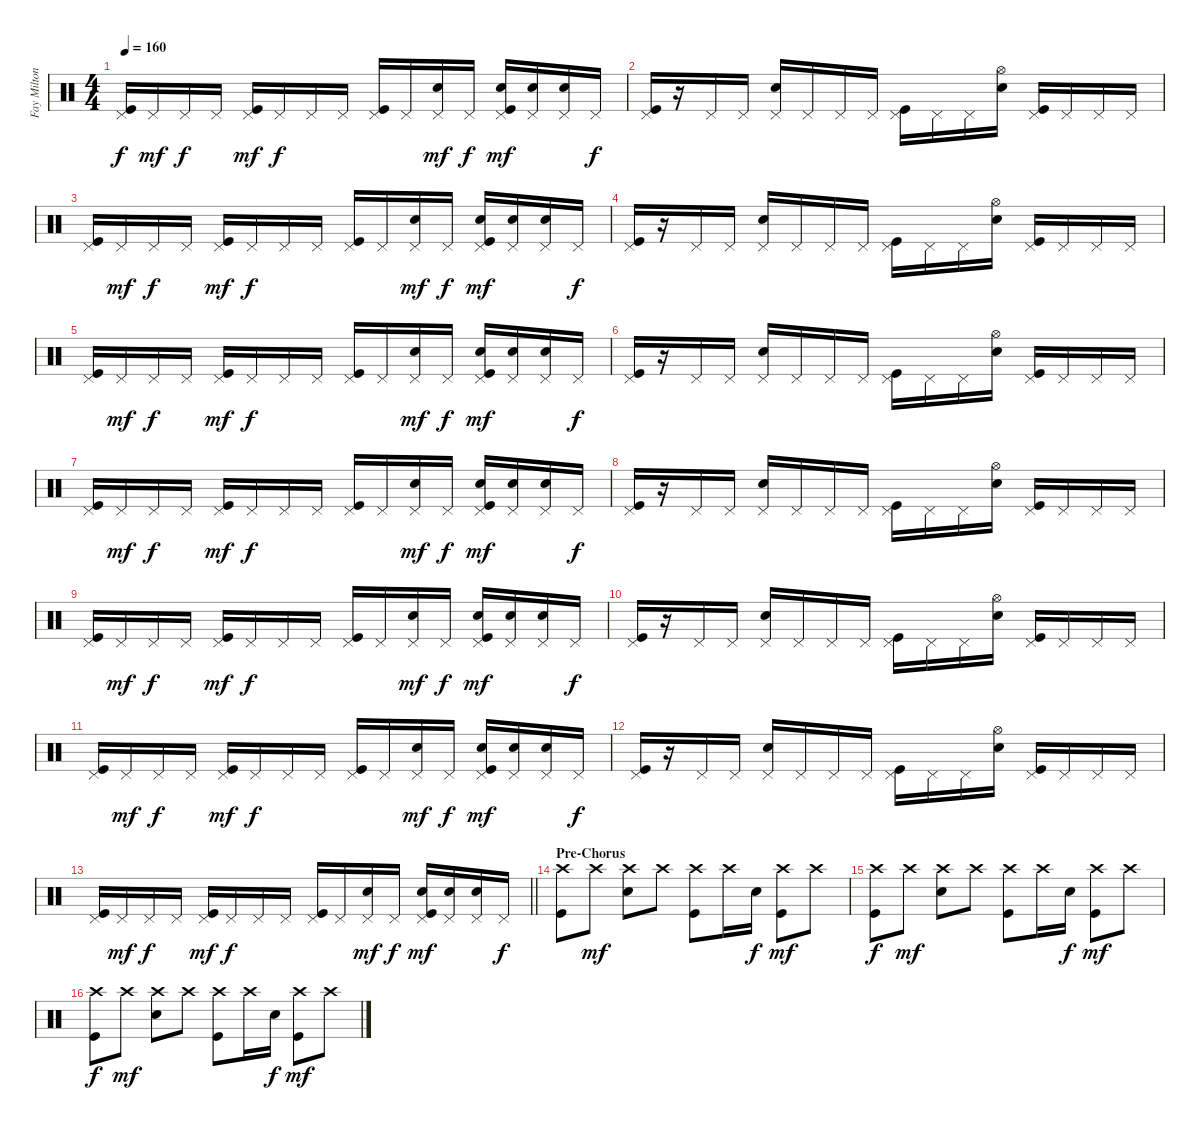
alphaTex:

\track ("Fay Milton - Drums" "Fay Milton") {instrument percussion}
\staff {score}
\articulation defaults
\ts (4 4)
\tempo 160
\clef neutral
\ks c
("Pedal Hi-Hat (hit)" "Kick (hit)").16{dy f} "Pedal Hi-Hat (hit)".16{dy mf} "Pedal Hi-Hat (hit)".16{dy f} "Pedal Hi-Hat (hit)".16 ("Pedal Hi-Hat (hit)" "Kick (hit)").16{dy mf} "Pedal Hi-Hat (hit)".16{dy f} "Pedal Hi-Hat (hit)".16 "Pedal Hi-Hat (hit)".16 ("Pedal Hi-Hat (hit)" "Kick (hit)").16 "Pedal Hi-Hat (hit)".16 ("Pedal Hi-Hat (hit)" "Snare (hit) 2").16{dy mf} "Pedal Hi-Hat (hit)".16{dy f} ("Pedal Hi-Hat (hit)" "Snare (hit) 2" "Kick (hit)").16{dy mf} ("Pedal Hi-Hat (hit)" "Snare (hit) 2").16 ("Pedal Hi-Hat (hit)" "Snare (hit) 2").16 "Pedal Hi-Hat (hit)".16{dy f} |
("Pedal Hi-Hat (hit)" "Kick (hit)").16 r.16 "Pedal Hi-Hat (hit)".16 "Pedal Hi-Hat (hit)".16 ("Pedal Hi-Hat (hit)" "Snare (hit) 2").16 "Pedal Hi-Hat (hit)".16 "Pedal Hi-Hat (hit)".16 "Pedal Hi-Hat (hit)".16 ("Pedal Hi-Hat (hit)" "Kick (hit)").16 "Pedal Hi-Hat (hit)".16 "Pedal Hi-Hat (hit)".16 ("Hi-Hat (open)" "Snare (hit) 2").16 ("Pedal Hi-Hat (hit)" "Kick (hit)").16 "Pedal Hi-Hat (hit)".16 "Pedal Hi-Hat (hit)".16 "Pedal Hi-Hat (hit)".16 |
("Pedal Hi-Hat (hit)" "Kick (hit)").16 "Pedal Hi-Hat (hit)".16{dy mf} "Pedal Hi-Hat (hit)".16{dy f} "Pedal Hi-Hat (hit)".16 ("Pedal Hi-Hat (hit)" "Kick (hit)").16{dy mf} "Pedal Hi-Hat (hit)".16{dy f} "Pedal Hi-Hat (hit)".16 "Pedal Hi-Hat (hit)".16 ("Pedal Hi-Hat (hit)" "Kick (hit)").16 "Pedal Hi-Hat (hit)".16 ("Pedal Hi-Hat (hit)" "Snare (hit) 2").16{dy mf} "Pedal Hi-Hat (hit)".16{dy f} ("Pedal Hi-Hat (hit)" "Snare (hit) 2" "Kick (hit)").16{dy mf} ("Pedal Hi-Hat (hit)" "Snare (hit) 2").16 ("Pedal Hi-Hat (hit)" "Snare (hit) 2").16 "Pedal Hi-Hat (hit)".16{dy f} |
("Pedal Hi-Hat (hit)" "Kick (hit)").16 r.16 "Pedal Hi-Hat (hit)".16 "Pedal Hi-Hat (hit)".16 ("Pedal Hi-Hat (hit)" "Snare (hit) 2").16 "Pedal Hi-Hat (hit)".16 "Pedal Hi-Hat (hit)".16 "Pedal Hi-Hat (hit)".16 ("Pedal Hi-Hat (hit)" "Kick (hit)").16 "Pedal Hi-Hat (hit)".16 "Pedal Hi-Hat (hit)".16 ("Hi-Hat (open)" "Snare (hit) 2").16 ("Pedal Hi-Hat (hit)" "Kick (hit)").16 "Pedal Hi-Hat (hit)".16 "Pedal Hi-Hat (hit)".16 "Pedal Hi-Hat (hit)".16 |
("Pedal Hi-Hat (hit)" "Kick (hit)").16 "Pedal Hi-Hat (hit)".16{dy mf} "Pedal Hi-Hat (hit)".16{dy f} "Pedal Hi-Hat (hit)".16 ("Pedal Hi-Hat (hit)" "Kick (hit)").16{dy mf} "Pedal Hi-Hat (hit)".16{dy f} "Pedal Hi-Hat (hit)".16 "Pedal Hi-Hat (hit)".16 ("Pedal Hi-Hat (hit)" "Kick (hit)").16 "Pedal Hi-Hat (hit)".16 ("Pedal Hi-Hat (hit)" "Snare (hit) 2").16{dy mf} "Pedal Hi-Hat (hit)".16{dy f} ("Pedal Hi-Hat (hit)" "Snare (hit) 2" "Kick (hit)").16{dy mf} ("Pedal Hi-Hat (hit)" "Snare (hit) 2").16 ("Pedal Hi-Hat (hit)" "Snare (hit) 2").16 "Pedal Hi-Hat (hit)".16{dy f} |
("Pedal Hi-Hat (hit)" "Kick (hit)").16 r.16 "Pedal Hi-Hat (hit)".16 "Pedal Hi-Hat (hit)".16 ("Pedal Hi-Hat (hit)" "Snare (hit) 2").16 "Pedal Hi-Hat (hit)".16 "Pedal Hi-Hat (hit)".16 "Pedal Hi-Hat (hit)".16 ("Pedal Hi-Hat (hit)" "Kick (hit)").16 "Pedal Hi-Hat (hit)".16 "Pedal Hi-Hat (hit)".16 ("Hi-Hat (open)" "Snare (hit) 2").16 ("Pedal Hi-Hat (hit)" "Kick (hit)").16 "Pedal Hi-Hat (hit)".16 "Pedal Hi-Hat (hit)".16 "Pedal Hi-Hat (hit)".16 |
("Pedal Hi-Hat (hit)" "Kick (hit)").16 "Pedal Hi-Hat (hit)".16{dy mf} "Pedal Hi-Hat (hit)".16{dy f} "Pedal Hi-Hat (hit)".16 ("Pedal Hi-Hat (hit)" "Kick (hit)").16{dy mf} "Pedal Hi-Hat (hit)".16{dy f} "Pedal Hi-Hat (hit)".16 "Pedal Hi-Hat (hit)".16 ("Pedal Hi-Hat (hit)" "Kick (hit)").16 "Pedal Hi-Hat (hit)".16 ("Pedal Hi-Hat (hit)" "Snare (hit) 2").16{dy mf} "Pedal Hi-Hat (hit)".16{dy f} ("Pedal Hi-Hat (hit)" "Snare (hit) 2" "Kick (hit)").16{dy mf} ("Pedal Hi-Hat (hit)" "Snare (hit) 2").16 ("Pedal Hi-Hat (hit)" "Snare (hit) 2").16 "Pedal Hi-Hat (hit)".16{dy f} |
("Pedal Hi-Hat (hit)" "Kick (hit)").16 r.16 "Pedal Hi-Hat (hit)".16 "Pedal Hi-Hat (hit)".16 ("Pedal Hi-Hat (hit)" "Snare (hit) 2").16 "Pedal Hi-Hat (hit)".16 "Pedal Hi-Hat (hit)".16 "Pedal Hi-Hat (hit)".16 ("Pedal Hi-Hat (hit)" "Kick (hit)").16 "Pedal Hi-Hat (hit)".16 "Pedal Hi-Hat (hit)".16 ("Hi-Hat (open)" "Snare (hit) 2").16 ("Pedal Hi-Hat (hit)" "Kick (hit)").16 "Pedal Hi-Hat (hit)".16 "Pedal Hi-Hat (hit)".16 "Pedal Hi-Hat (hit)".16 |
("Pedal Hi-Hat (hit)" "Kick (hit)").16 "Pedal Hi-Hat (hit)".16{dy mf} "Pedal Hi-Hat (hit)".16{dy f} "Pedal Hi-Hat (hit)".16 ("Pedal Hi-Hat (hit)" "Kick (hit)").16{dy mf} "Pedal Hi-Hat (hit)".16{dy f} "Pedal Hi-Hat (hit)".16 "Pedal Hi-Hat (hit)".16 ("Pedal Hi-Hat (hit)" "Kick (hit)").16 "Pedal Hi-Hat (hit)".16 ("Pedal Hi-Hat (hit)" "Snare (hit) 2").16{dy mf} "Pedal Hi-Hat (hit)".16{dy f} ("Pedal Hi-Hat (hit)" "Snare (hit) 2" "Kick (hit)").16{dy mf} ("Pedal Hi-Hat (hit)" "Snare (hit) 2").16 ("Pedal Hi-Hat (hit)" "Snare (hit) 2").16 "Pedal Hi-Hat (hit)".16{dy f} |
("Pedal Hi-Hat (hit)" "Kick (hit)").16 r.16 "Pedal Hi-Hat (hit)".16 "Pedal Hi-Hat (hit)".16 ("Pedal Hi-Hat (hit)" "Snare (hit) 2").16 "Pedal Hi-Hat (hit)".16 "Pedal Hi-Hat (hit)".16 "Pedal Hi-Hat (hit)".16 ("Pedal Hi-Hat (hit)" "Kick (hit)").16 "Pedal Hi-Hat (hit)".16 "Pedal Hi-Hat (hit)".16 ("Hi-Hat (open)" "Snare (hit) 2").16 ("Pedal Hi-Hat (hit)" "Kick (hit)").16 "Pedal Hi-Hat (hit)".16 "Pedal Hi-Hat (hit)".16 "Pedal Hi-Hat (hit)".16 |
("Pedal Hi-Hat (hit)" "Kick (hit)").16 "Pedal Hi-Hat (hit)".16{dy mf} "Pedal Hi-Hat (hit)".16{dy f} "Pedal Hi-Hat (hit)".16 ("Pedal Hi-Hat (hit)" "Kick (hit)").16{dy mf} "Pedal Hi-Hat (hit)".16{dy f} "Pedal Hi-Hat (hit)".16 "Pedal Hi-Hat (hit)".16 ("Pedal Hi-Hat (hit)" "Kick (hit)").16 "Pedal Hi-Hat (hit)".16 ("Pedal Hi-Hat (hit)" "Snare (hit) 2").16{dy mf} "Pedal Hi-Hat (hit)".16{dy f} ("Pedal Hi-Hat (hit)" "Snare (hit) 2" "Kick (hit)").16{dy mf} ("Pedal Hi-Hat (hit)" "Snare (hit) 2").16 ("Pedal Hi-Hat (hit)" "Snare (hit) 2").16 "Pedal Hi-Hat (hit)".16{dy f} |
("Pedal Hi-Hat (hit)" "Kick (hit)").16 r.16 "Pedal Hi-Hat (hit)".16 "Pedal Hi-Hat (hit)".16 ("Pedal Hi-Hat (hit)" "Snare (hit) 2").16 "Pedal Hi-Hat (hit)".16 "Pedal Hi-Hat (hit)".16 "Pedal Hi-Hat (hit)".16 ("Pedal Hi-Hat (hit)" "Kick (hit)").16 "Pedal Hi-Hat (hit)".16 "Pedal Hi-Hat (hit)".16 ("Hi-Hat (open)" "Snare (hit) 2").16 ("Pedal Hi-Hat (hit)" "Kick (hit)").16 "Pedal Hi-Hat (hit)".16 "Pedal Hi-Hat (hit)".16 "Pedal Hi-Hat (hit)".16 |
\barLineRight lightlight
("Pedal Hi-Hat (hit)" "Kick (hit)").16 "Pedal Hi-Hat (hit)".16{dy mf} "Pedal Hi-Hat (hit)".16{dy f} "Pedal Hi-Hat (hit)".16 ("Pedal Hi-Hat (hit)" "Kick (hit)").16{dy mf} "Pedal Hi-Hat (hit)".16{dy f} "Pedal Hi-Hat (hit)".16 "Pedal Hi-Hat (hit)".16 ("Pedal Hi-Hat (hit)" "Kick (hit)").16 "Pedal Hi-Hat (hit)".16 ("Pedal Hi-Hat (hit)" "Snare (hit) 2").16{dy mf} "Pedal Hi-Hat (hit)".16{dy f} ("Pedal Hi-Hat (hit)" "Snare (hit) 2" "Kick (hit)").16{dy mf} ("Pedal Hi-Hat (hit)" "Snare (hit) 2").16 ("Pedal Hi-Hat (hit)" "Snare (hit) 2").16 "Pedal Hi-Hat (hit)".16{dy f} |
\section ("" "Pre-Chorus")
("Crash high (hit)" "Kick (hit)").8 "Crash high (hit)".8{dy mf} ("Crash high (hit)" "Snare (hit) 2").8 "Crash high (hit)".8 ("Crash high (hit)" "Kick (hit)").8 "Crash high (hit)".16 "Snare (hit) 2".16{dy f} ("Crash high (hit)" "Kick (hit)").8{dy mf} "Crash high (hit)".8 |
("Crash high (hit)" "Kick (hit)").8{dy f} "Crash high (hit)".8{dy mf} ("Crash high (hit)" "Snare (hit) 2").8 "Crash high (hit)".8 ("Crash high (hit)" "Kick (hit)").8 "Crash high (hit)".16 "Snare (hit) 2".16{dy f} ("Crash high (hit)" "Kick (hit)").8{dy mf} "Crash high (hit)".8 |
("Crash high (hit)" "Kick (hit)").8{dy f} "Crash high (hit)".8{dy mf} ("Crash high (hit)" "Snare (hit) 2").8 "Crash high (hit)".8 ("Crash high (hit)" "Kick (hit)").8 "Crash high (hit)".16 "Snare (hit) 2".16{dy f} ("Crash high (hit)" "Kick (hit)").8{dy mf} "Crash high (hit)".8
